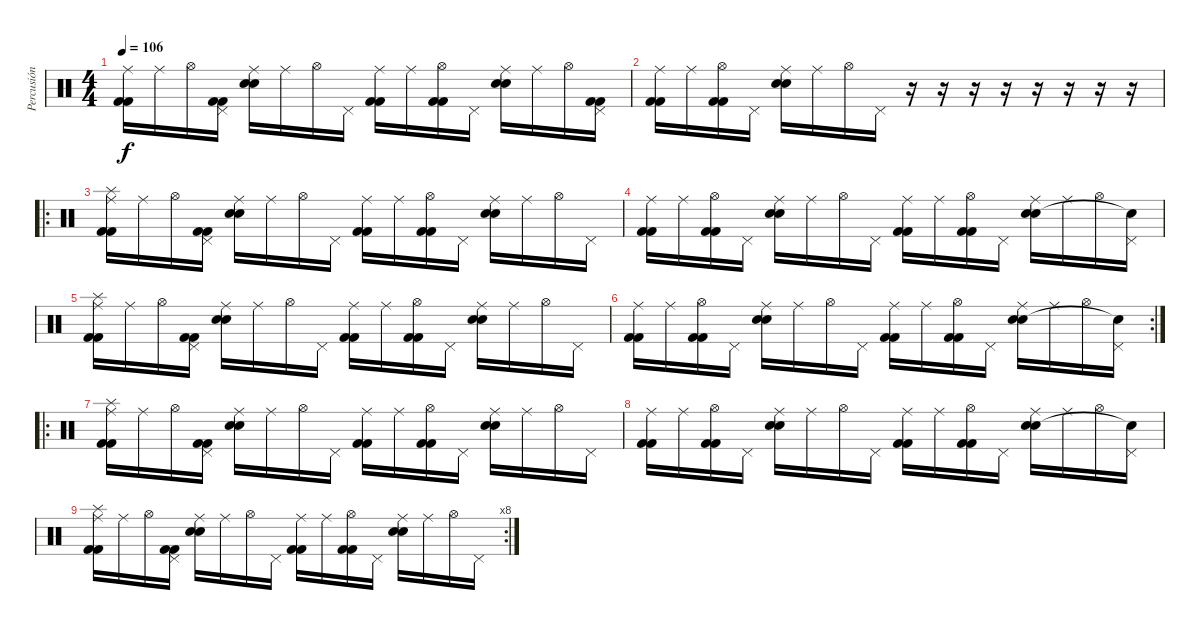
\track ("Percusión" "Percusión") {instrument percussion}
\staff {score}
\articulation defaults
\ts (4 4)
\tempo 106
\clef neutral
\ks c
("Ride (middle)" "Kick (hit) 2" "Kick (hit) 2").16{dy f} "Ride (middle)".16 "Hi-Hat (open)".16 ("Pedal Hi-Hat (hit)" "Kick (hit) 2" "Kick (hit) 2").16 ("Ride (middle)" "Electric Snare (hit)" "Electric Snare (hit)").16 "Ride (middle)".16 "Hi-Hat (open)".16 "Pedal Hi-Hat (hit)".16 ("Ride (middle)" "Kick (hit) 2" "Kick (hit) 2").16 "Ride (middle)".16 ("Hi-Hat (open)" "Kick (hit) 2" "Kick (hit) 2").16 "Pedal Hi-Hat (hit)".16 ("Ride (middle)" "Electric Snare (hit)" "Electric Snare (hit)").16 "Ride (middle)".16 "Hi-Hat (open)".16 ("Pedal Hi-Hat (hit)" "Kick (hit) 2" "Kick (hit) 2").16 |
("Ride (middle)" "Kick (hit) 2" "Kick (hit) 2").16 "Ride (middle)".16 ("Hi-Hat (open)" "Kick (hit) 2" "Kick (hit) 2").16 "Pedal Hi-Hat (hit)".16 ("Ride (middle)" "Electric Snare (hit)" "Electric Snare (hit)").16 "Ride (middle)".16 "Hi-Hat (open)".16 "Pedal Hi-Hat (hit)".16 r.16 r.16 r.16 r.16 r.16 r.16 r.16 r.16 |
\ro
("Ride (middle)" "Splash (hit)" "Kick (hit) 2" "Kick (hit) 2").16 "Ride (middle)".16 "Hi-Hat (open)".16 ("Pedal Hi-Hat (hit)" "Kick (hit) 2" "Kick (hit) 2").16 ("Ride (middle)" "Electric Snare (hit)" "Electric Snare (hit)").16 "Ride (middle)".16 "Hi-Hat (open)".16 "Pedal Hi-Hat (hit)".16 ("Ride (middle)" "Kick (hit) 2" "Kick (hit) 2").16 "Ride (middle)".16 ("Hi-Hat (open)" "Kick (hit) 2" "Kick (hit) 2").16 "Pedal Hi-Hat (hit)".16 ("Ride (middle)" "Electric Snare (hit)" "Electric Snare (hit)").16 "Ride (middle)".16 "Hi-Hat (open)".16 "Pedal Hi-Hat (hit)".16 |
("Ride (middle)" "Kick (hit) 2" "Kick (hit) 2").16 "Ride (middle)".16 ("Hi-Hat (open)" "Kick (hit) 2" "Kick (hit) 2").16 "Pedal Hi-Hat (hit)".16 ("Ride (middle)" "Electric Snare (hit)" "Electric Snare (hit)").16 "Ride (middle)".16 "Hi-Hat (open)".16 "Pedal Hi-Hat (hit)".16 ("Ride (middle)" "Kick (hit) 2" "Kick (hit) 2").16 "Ride (middle)".16 ("Hi-Hat (open)" "Kick (hit) 2" "Kick (hit) 2").16 "Pedal Hi-Hat (hit)".16 ("Ride (middle)" "Electric Snare (hit)" "Electric Snare (hit)").16 "Ride (middle)".16 "Hi-Hat (open)".16 ("Pedal Hi-Hat (hit)" "Snare (hit)"{t}).16 |
("Ride (middle)" "Splash (hit)" "Kick (hit) 2" "Kick (hit) 2").16 "Ride (middle)".16 "Hi-Hat (open)".16 ("Pedal Hi-Hat (hit)" "Kick (hit) 2" "Kick (hit) 2").16 ("Ride (middle)" "Electric Snare (hit)" "Electric Snare (hit)").16 "Ride (middle)".16 "Hi-Hat (open)".16 "Pedal Hi-Hat (hit)".16 ("Ride (middle)" "Kick (hit) 2" "Kick (hit) 2").16 "Ride (middle)".16 ("Hi-Hat (open)" "Kick (hit) 2" "Kick (hit) 2").16 "Pedal Hi-Hat (hit)".16 ("Ride (middle)" "Electric Snare (hit)" "Electric Snare (hit)").16 "Ride (middle)".16 "Hi-Hat (open)".16 "Pedal Hi-Hat (hit)".16 |
\rc 2
("Ride (middle)" "Kick (hit) 2" "Kick (hit) 2").16 "Ride (middle)".16 ("Hi-Hat (open)" "Kick (hit) 2" "Kick (hit) 2").16 "Pedal Hi-Hat (hit)".16 ("Ride (middle)" "Electric Snare (hit)" "Electric Snare (hit)").16 "Ride (middle)".16 "Hi-Hat (open)".16 "Pedal Hi-Hat (hit)".16 ("Ride (middle)" "Kick (hit) 2" "Kick (hit) 2").16 "Ride (middle)".16 ("Hi-Hat (open)" "Kick (hit) 2" "Kick (hit) 2").16 "Pedal Hi-Hat (hit)".16 ("Ride (middle)" "Electric Snare (hit)" "Electric Snare (hit)").16 "Ride (middle)".16 "Hi-Hat (open)".16 ("Pedal Hi-Hat (hit)" "Snare (hit)"{t}).16 |
\ro
("Ride (middle)" "Splash (hit)" "Kick (hit) 2" "Kick (hit) 2").16 "Ride (middle)".16 "Hi-Hat (open)".16 ("Pedal Hi-Hat (hit)" "Kick (hit) 2" "Kick (hit) 2").16 ("Ride (middle)" "Electric Snare (hit)" "Electric Snare (hit)").16 "Ride (middle)".16 "Hi-Hat (open)".16 "Pedal Hi-Hat (hit)".16 ("Ride (middle)" "Kick (hit) 2" "Kick (hit) 2").16 "Ride (middle)".16 ("Hi-Hat (open)" "Kick (hit) 2" "Kick (hit) 2").16 "Pedal Hi-Hat (hit)".16 ("Ride (middle)" "Electric Snare (hit)" "Electric Snare (hit)").16 "Ride (middle)".16 "Hi-Hat (open)".16 "Pedal Hi-Hat (hit)".16 |
("Ride (middle)" "Kick (hit) 2" "Kick (hit) 2").16 "Ride (middle)".16 ("Hi-Hat (open)" "Kick (hit) 2" "Kick (hit) 2").16 "Pedal Hi-Hat (hit)".16 ("Ride (middle)" "Electric Snare (hit)" "Electric Snare (hit)").16 "Ride (middle)".16 "Hi-Hat (open)".16 "Pedal Hi-Hat (hit)".16 ("Ride (middle)" "Kick (hit) 2" "Kick (hit) 2").16 "Ride (middle)".16 ("Hi-Hat (open)" "Kick (hit) 2" "Kick (hit) 2").16 "Pedal Hi-Hat (hit)".16 ("Ride (middle)" "Electric Snare (hit)" "Electric Snare (hit)").16 "Ride (middle)".16 "Hi-Hat (open)".16 ("Pedal Hi-Hat (hit)" "Snare (hit)"{t}).16 |
\rc 8
("Ride (middle)" "Splash (hit)" "Kick (hit) 2" "Kick (hit) 2").16 "Ride (middle)".16 "Hi-Hat (open)".16 ("Pedal Hi-Hat (hit)" "Kick (hit) 2" "Kick (hit) 2").16 ("Ride (middle)" "Electric Snare (hit)" "Electric Snare (hit)").16 "Ride (middle)".16 "Hi-Hat (open)".16 "Pedal Hi-Hat (hit)".16 ("Ride (middle)" "Kick (hit) 2" "Kick (hit) 2").16 "Ride (middle)".16 ("Hi-Hat (open)" "Kick (hit) 2" "Kick (hit) 2").16 "Pedal Hi-Hat (hit)".16 ("Ride (middle)" "Electric Snare (hit)" "Electric Snare (hit)").16 "Ride (middle)".16 "Hi-Hat (open)".16 "Pedal Hi-Hat (hit)".16
